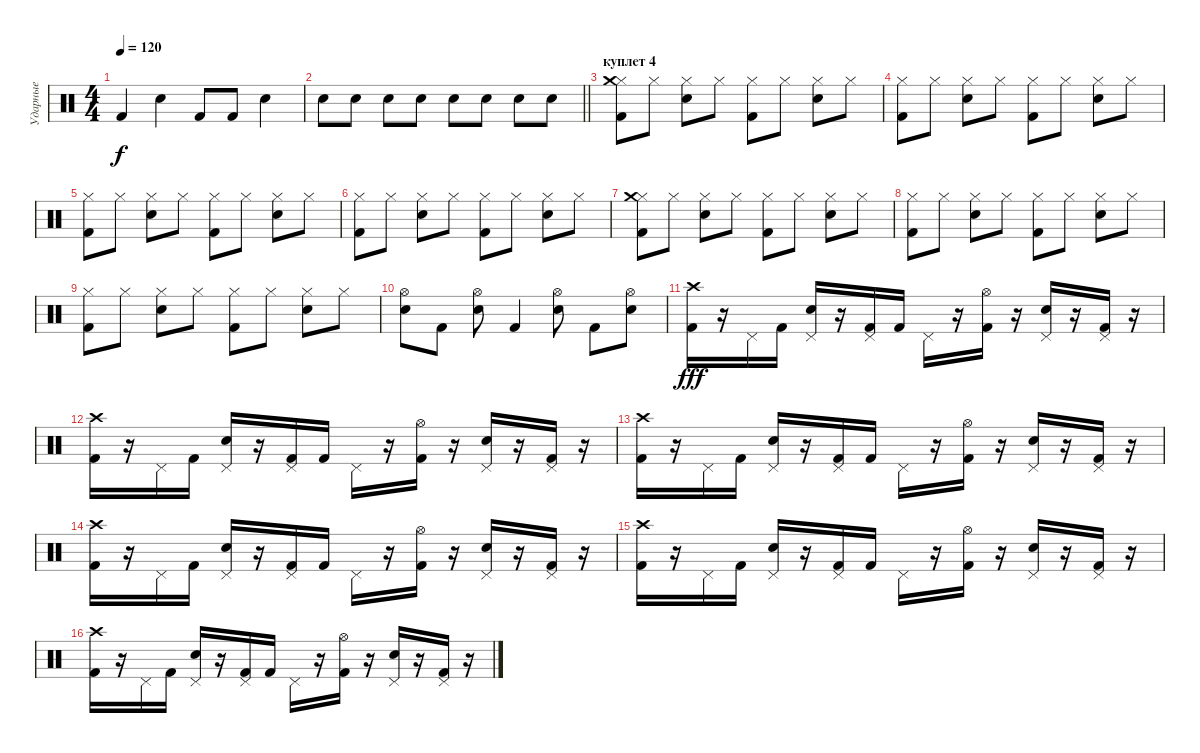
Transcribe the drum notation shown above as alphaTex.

\track ("Ударные" "Ударные") {instrument percussion}
\staff {score}
\articulation defaults
\ts (4 4)
\tempo 120
\clef neutral
\ks c "Kick (hit) 2".4{dy f} "Snare (hit) 2".4 "Kick (hit) 2".8 "Kick (hit) 2".8 "Snare (hit) 2".4
|
\barLineRight lightlight "Snare (hit) 2".8 "Snare (hit) 2".8 "Snare (hit) 2".8 "Snare (hit) 2".8 "Snare (hit) 2".8 "Snare (hit) 2".8 "Snare (hit) 2".8 "Snare (hit) 2".8
|
\section ("" "куплет 4")
("Hi-Hat (closed)" "Kick (hit) 2" "Crash medium (hit)").8 "Hi-Hat (closed)".8 ("Hi-Hat (closed)" "Electric Snare (hit)").8 "Hi-Hat (closed)".8 ("Hi-Hat (closed)" "Kick (hit) 2").8 "Hi-Hat (closed)".8 ("Hi-Hat (closed)" "Electric Snare (hit)").8 "Hi-Hat (closed)".8 |
("Hi-Hat (closed)" "Kick (hit) 2").8 "Hi-Hat (closed)".8 ("Hi-Hat (closed)" "Electric Snare (hit)").8 "Hi-Hat (closed)".8 ("Hi-Hat (closed)" "Kick (hit) 2").8 "Hi-Hat (closed)".8 ("Hi-Hat (closed)" "Electric Snare (hit)").8 "Hi-Hat (closed)".8 |
("Hi-Hat (closed)" "Kick (hit) 2").8 "Hi-Hat (closed)".8 ("Hi-Hat (closed)" "Electric Snare (hit)").8 "Hi-Hat (closed)".8 ("Hi-Hat (closed)" "Kick (hit) 2").8 "Hi-Hat (closed)".8 ("Hi-Hat (closed)" "Electric Snare (hit)").8 "Hi-Hat (closed)".8 |
("Hi-Hat (closed)" "Kick (hit) 2").8 "Hi-Hat (closed)".8 ("Hi-Hat (closed)" "Electric Snare (hit)").8 "Hi-Hat (closed)".8 ("Hi-Hat (closed)" "Kick (hit) 2").8 "Hi-Hat (closed)".8 ("Hi-Hat (closed)" "Electric Snare (hit)").8 "Hi-Hat (closed)".8 |
("Hi-Hat (closed)" "Kick (hit) 2" "Crash medium (hit)").8 "Hi-Hat (closed)".8 ("Hi-Hat (closed)" "Electric Snare (hit)").8 "Hi-Hat (closed)".8 ("Hi-Hat (closed)" "Kick (hit) 2").8 "Hi-Hat (closed)".8 ("Hi-Hat (closed)" "Electric Snare (hit)").8 "Hi-Hat (closed)".8 |
("Hi-Hat (closed)" "Kick (hit) 2").8 "Hi-Hat (closed)".8 ("Hi-Hat (closed)" "Electric Snare (hit)").8 "Hi-Hat (closed)".8 ("Hi-Hat (closed)" "Kick (hit) 2").8 "Hi-Hat (closed)".8 ("Hi-Hat (closed)" "Electric Snare (hit)").8 "Hi-Hat (closed)".8 |
("Hi-Hat (closed)" "Kick (hit) 2").8 "Hi-Hat (closed)".8 ("Hi-Hat (closed)" "Electric Snare (hit)").8 "Hi-Hat (closed)".8 ("Hi-Hat (closed)" "Kick (hit) 2").8 "Hi-Hat (closed)".8 ("Hi-Hat (closed)" "Electric Snare (hit)").8 "Hi-Hat (closed)".8 |
("Electric Snare (hit)" "Hi-Hat (open)").8 "Kick (hit) 2".8 ("Electric Snare (hit)" "Hi-Hat (open)").8 "Kick (hit) 2".4 ("Electric Snare (hit)" "Hi-Hat (open)").8 "Kick (hit) 2".8 ("Electric Snare (hit)" "Hi-Hat (open)").8 |
("Crash high (hit)" "Kick (hit) 2").16{dy fff} r.16 "Pedal Hi-Hat (hit)".16 "Kick (hit) 2".16 ("Pedal Hi-Hat (hit)" "Snare (hit) 2").16 r.16 ("Pedal Hi-Hat (hit)" "Kick (hit) 2").16 "Kick (hit) 2".16 "Pedal Hi-Hat (hit)".16 r.16 ("Hi-Hat (open)" "Kick (hit) 2").16 r.16 ("Pedal Hi-Hat (hit)" "Snare (hit) 2").16 r.16 ("Pedal Hi-Hat (hit)" "Kick (hit) 2").16 r.16 |
("Crash high (hit)" "Kick (hit) 2").16 r.16 "Pedal Hi-Hat (hit)".16 "Kick (hit) 2".16 ("Pedal Hi-Hat (hit)" "Snare (hit) 2").16 r.16 ("Pedal Hi-Hat (hit)" "Kick (hit) 2").16 "Kick (hit) 2".16 "Pedal Hi-Hat (hit)".16 r.16 ("Hi-Hat (open)" "Kick (hit) 2").16 r.16 ("Pedal Hi-Hat (hit)" "Snare (hit) 2").16 r.16 ("Pedal Hi-Hat (hit)" "Kick (hit) 2").16 r.16 |
("Crash high (hit)" "Kick (hit) 2").16 r.16 "Pedal Hi-Hat (hit)".16 "Kick (hit) 2".16 ("Pedal Hi-Hat (hit)" "Snare (hit) 2").16 r.16 ("Pedal Hi-Hat (hit)" "Kick (hit) 2").16 "Kick (hit) 2".16 "Pedal Hi-Hat (hit)".16 r.16 ("Hi-Hat (open)" "Kick (hit) 2").16 r.16 ("Pedal Hi-Hat (hit)" "Snare (hit) 2").16 r.16 ("Pedal Hi-Hat (hit)" "Kick (hit) 2").16 r.16 |
("Crash high (hit)" "Kick (hit) 2").16 r.16 "Pedal Hi-Hat (hit)".16 "Kick (hit) 2".16 ("Pedal Hi-Hat (hit)" "Snare (hit) 2").16 r.16 ("Pedal Hi-Hat (hit)" "Kick (hit) 2").16 "Kick (hit) 2".16 "Pedal Hi-Hat (hit)".16 r.16 ("Hi-Hat (open)" "Kick (hit) 2").16 r.16 ("Pedal Hi-Hat (hit)" "Snare (hit) 2").16 r.16 ("Pedal Hi-Hat (hit)" "Kick (hit) 2").16 r.16 |
("Crash high (hit)" "Kick (hit) 2").16 r.16 "Pedal Hi-Hat (hit)".16 "Kick (hit) 2".16 ("Pedal Hi-Hat (hit)" "Snare (hit) 2").16 r.16 ("Pedal Hi-Hat (hit)" "Kick (hit) 2").16 "Kick (hit) 2".16 "Pedal Hi-Hat (hit)".16 r.16 ("Hi-Hat (open)" "Kick (hit) 2").16 r.16 ("Pedal Hi-Hat (hit)" "Snare (hit) 2").16 r.16 ("Pedal Hi-Hat (hit)" "Kick (hit) 2").16 r.16 |
("Crash high (hit)" "Kick (hit) 2").16 r.16 "Pedal Hi-Hat (hit)".16 "Kick (hit) 2".16 ("Pedal Hi-Hat (hit)" "Snare (hit) 2").16 r.16 ("Pedal Hi-Hat (hit)" "Kick (hit) 2").16 "Kick (hit) 2".16 "Pedal Hi-Hat (hit)".16 r.16 ("Hi-Hat (open)" "Kick (hit) 2").16 r.16 ("Pedal Hi-Hat (hit)" "Snare (hit) 2").16 r.16 ("Pedal Hi-Hat (hit)" "Kick (hit) 2").16 r.16
